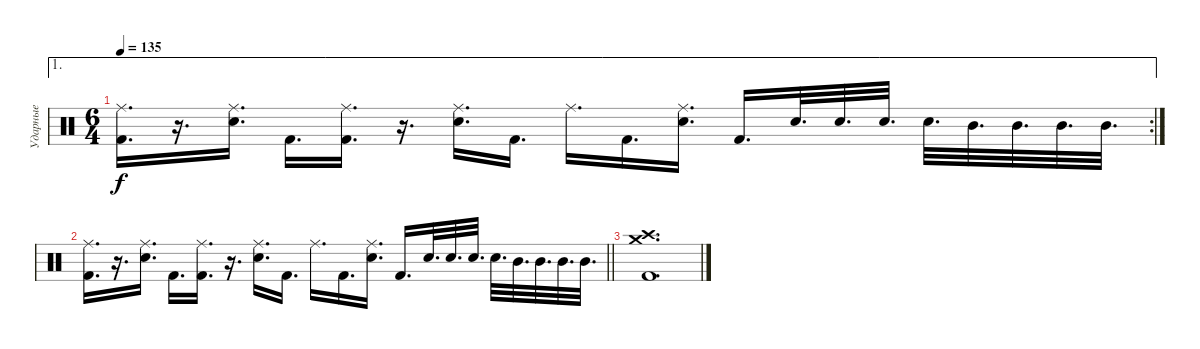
\track ("Ударные" "Ударные") {instrument percussion}
\staff {score}
\articulation defaults
\ae 1
\rc 2
\ts (6 4)
\tempo 135
\clef neutral
\ks c
("Ride (middle)" "Kick (hit) 2").16{d dy f} r.16{d} ("Ride (middle)" "Electric Snare (hit)").16{d} "Kick (hit) 2".16{d} ("Ride (middle)" "Kick (hit) 2").16{d} r.16{d} ("Ride (middle)" "Electric Snare (hit)").16{d} "Kick (hit) 2".16{d} "Ride (middle)".16{d} "Kick (hit) 2".16{d} ("Ride (middle)" "Electric Snare (hit)").16{d} "Kick (hit) 2".16{d} "Electric Snare (hit)".32{d} "Electric Snare (hit)".32{d} "Electric Snare (hit)".32{d} "Electric Snare (hit)".32{d} "Mid Tom (hit)".32{d} "Mid Tom (hit)".32{d} "Mid Tom (hit)".32{d} "Mid Tom (hit)".32{d} |
\barLineRight lightlight
("Ride (middle)" "Kick (hit) 2").16{d} r.16{d} ("Ride (middle)" "Electric Snare (hit)").16{d} "Kick (hit) 2".16{d} ("Ride (middle)" "Kick (hit) 2").16{d} r.16{d} ("Ride (middle)" "Electric Snare (hit)").16{d} "Kick (hit) 2".16{d} "Ride (middle)".16{d} "Kick (hit) 2".16{d} ("Ride (middle)" "Electric Snare (hit)").16{d} "Kick (hit) 2".16{d} "Electric Snare (hit)".32{d} "Electric Snare (hit)".32{d} "Electric Snare (hit)".32{d} "Electric Snare (hit)".32{d} "Mid Tom (hit)".32{d} "Mid Tom (hit)".32{d} "Mid Tom (hit)".32{d} "Mid Tom (hit)".32{d} |
("Crash high (hit)" "Crash medium (hit)" "Kick (hit) 2").1{d}
